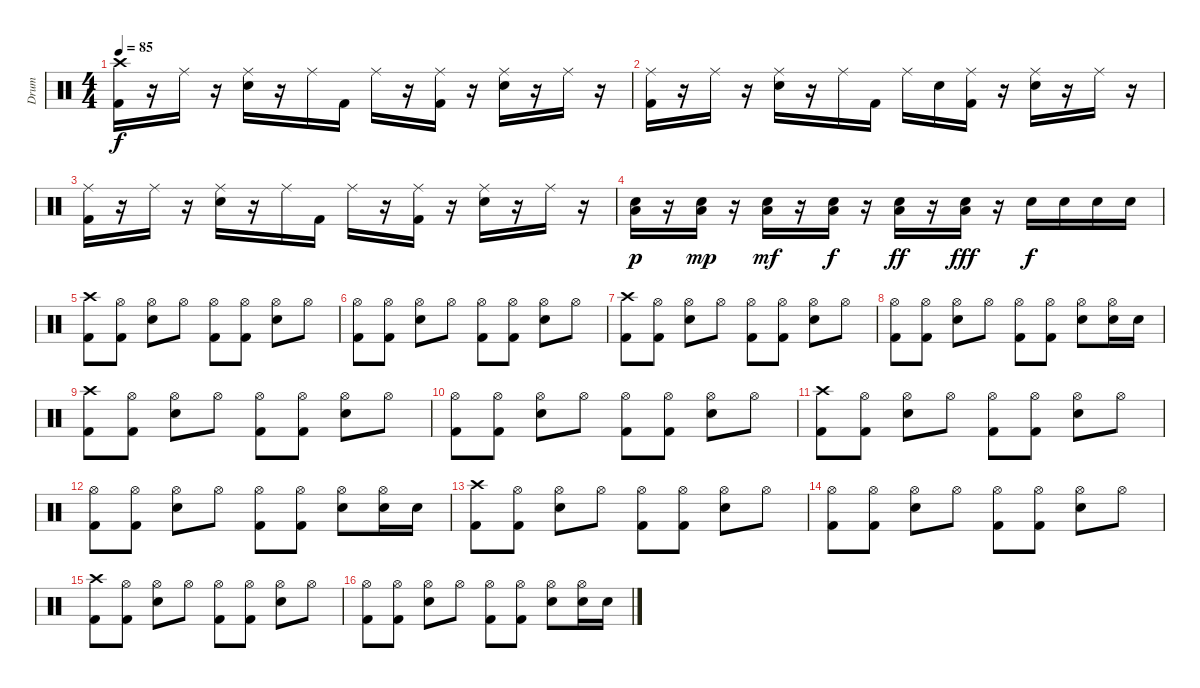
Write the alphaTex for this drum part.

\track ("Drum" "Drum") {instrument percussion}
\staff {score}
\articulation defaults
\ts (4 4)
\tempo 85
\clef neutral
\ks c
("Crash high (hit)" "Kick (hit) 2").16{dy f} r.16 "Ride (middle)".16 r.16 ("Ride (middle)" "Electric Snare (hit)").16 r.16 "Ride (middle)".16 "Kick (hit) 2".16 "Ride (middle)".16 r.16 ("Ride (middle)" "Kick (hit) 2").16 r.16 ("Ride (middle)" "Electric Snare (hit)").16 r.16 "Ride (middle)".16 r.16 |
("Ride (middle)" "Kick (hit) 2").16 r.16 "Ride (middle)".16 r.16 ("Ride (middle)" "Electric Snare (hit)").16 r.16 "Ride (middle)".16 "Kick (hit) 2".16 "Ride (middle)".16 "Electric Snare (hit)".16 ("Ride (middle)" "Kick (hit) 2").16 r.16 ("Ride (middle)" "Electric Snare (hit)").16 r.16 "Ride (middle)".16 r.16 |
("Ride (middle)" "Kick (hit) 2").16 r.16 "Ride (middle)".16 r.16 ("Ride (middle)" "Electric Snare (hit)").16 r.16 "Ride (middle)".16 "Kick (hit) 2".16 "Ride (middle)".16 r.16 ("Ride (middle)" "Kick (hit) 2").16 r.16 ("Ride (middle)" "Electric Snare (hit)").16 r.16 "Ride (middle)".16 r.16 |
("Low Floor Tom (hit)" "Electric Snare (hit)").16{dy p} r.16 ("Low Floor Tom (hit)" "Electric Snare (hit)").16{dy mp} r.16 ("Low Floor Tom (hit)" "Electric Snare (hit)").16{dy mf} r.16 ("Low Floor Tom (hit)" "Electric Snare (hit)").16{dy f} r.16 ("Low Floor Tom (hit)" "Electric Snare (hit)").16{dy ff} r.16 ("Low Floor Tom (hit)" "Electric Snare (hit)").16{dy fff} r.16 "Electric Snare (hit)".16{dy f} "Electric Snare (hit)".16 "Electric Snare (hit)".16 "Electric Snare (hit)".16 |
("Crash high (hit)" "Kick (hit) 2").8 ("Hi-Hat (open)" "Kick (hit) 2").8 ("Hi-Hat (open)" "Electric Snare (hit)").8 "Hi-Hat (open)".8 ("Hi-Hat (open)" "Kick (hit) 2").8 ("Hi-Hat (open)" "Kick (hit) 2").8 ("Hi-Hat (open)" "Electric Snare (hit)").8 "Hi-Hat (open)".8 |
("Hi-Hat (open)" "Kick (hit) 2").8 ("Hi-Hat (open)" "Kick (hit) 2").8 ("Hi-Hat (open)" "Electric Snare (hit)").8 "Hi-Hat (open)".8 ("Hi-Hat (open)" "Kick (hit) 2").8 ("Hi-Hat (open)" "Kick (hit) 2").8 ("Hi-Hat (open)" "Electric Snare (hit)").8 "Hi-Hat (open)".8 |
("Crash high (hit)" "Kick (hit) 2").8 ("Hi-Hat (open)" "Kick (hit) 2").8 ("Hi-Hat (open)" "Electric Snare (hit)").8 "Hi-Hat (open)".8 ("Hi-Hat (open)" "Kick (hit) 2").8 ("Hi-Hat (open)" "Kick (hit) 2").8 ("Hi-Hat (open)" "Electric Snare (hit)").8 "Hi-Hat (open)".8 |
("Hi-Hat (open)" "Kick (hit) 2").8 ("Hi-Hat (open)" "Kick (hit) 2").8 ("Hi-Hat (open)" "Electric Snare (hit)").8 "Hi-Hat (open)".8 ("Hi-Hat (open)" "Kick (hit) 2").8 ("Hi-Hat (open)" "Kick (hit) 2").8 ("Hi-Hat (open)" "Electric Snare (hit)").8 ("Hi-Hat (open)" "Electric Snare (hit)").16 "Electric Snare (hit)".16 |
("Crash high (hit)" "Kick (hit) 2").8 ("Hi-Hat (open)" "Kick (hit) 2").8 ("Hi-Hat (open)" "Electric Snare (hit)").8 "Hi-Hat (open)".8 ("Hi-Hat (open)" "Kick (hit) 2").8 ("Hi-Hat (open)" "Kick (hit) 2").8 ("Hi-Hat (open)" "Electric Snare (hit)").8 "Hi-Hat (open)".8 |
("Hi-Hat (open)" "Kick (hit) 2").8 ("Hi-Hat (open)" "Kick (hit) 2").8 ("Hi-Hat (open)" "Electric Snare (hit)").8 "Hi-Hat (open)".8 ("Hi-Hat (open)" "Kick (hit) 2").8 ("Hi-Hat (open)" "Kick (hit) 2").8 ("Hi-Hat (open)" "Electric Snare (hit)").8 "Hi-Hat (open)".8 |
("Crash high (hit)" "Kick (hit) 2").8 ("Hi-Hat (open)" "Kick (hit) 2").8 ("Hi-Hat (open)" "Electric Snare (hit)").8 "Hi-Hat (open)".8 ("Hi-Hat (open)" "Kick (hit) 2").8 ("Hi-Hat (open)" "Kick (hit) 2").8 ("Hi-Hat (open)" "Electric Snare (hit)").8 "Hi-Hat (open)".8 |
("Hi-Hat (open)" "Kick (hit) 2").8 ("Hi-Hat (open)" "Kick (hit) 2").8 ("Hi-Hat (open)" "Electric Snare (hit)").8 "Hi-Hat (open)".8 ("Hi-Hat (open)" "Kick (hit) 2").8 ("Hi-Hat (open)" "Kick (hit) 2").8 ("Hi-Hat (open)" "Electric Snare (hit)").8 ("Hi-Hat (open)" "Electric Snare (hit)").16 "Electric Snare (hit)".16 |
("Crash high (hit)" "Kick (hit) 2").8 ("Hi-Hat (open)" "Kick (hit) 2").8 ("Hi-Hat (open)" "Electric Snare (hit)").8 "Hi-Hat (open)".8 ("Hi-Hat (open)" "Kick (hit) 2").8 ("Hi-Hat (open)" "Kick (hit) 2").8 ("Hi-Hat (open)" "Electric Snare (hit)").8 "Hi-Hat (open)".8 |
("Hi-Hat (open)" "Kick (hit) 2").8 ("Hi-Hat (open)" "Kick (hit) 2").8 ("Hi-Hat (open)" "Electric Snare (hit)").8 "Hi-Hat (open)".8 ("Hi-Hat (open)" "Kick (hit) 2").8 ("Hi-Hat (open)" "Kick (hit) 2").8 ("Hi-Hat (open)" "Electric Snare (hit)").8 "Hi-Hat (open)".8 |
("Crash high (hit)" "Kick (hit) 2").8 ("Hi-Hat (open)" "Kick (hit) 2").8 ("Hi-Hat (open)" "Electric Snare (hit)").8 "Hi-Hat (open)".8 ("Hi-Hat (open)" "Kick (hit) 2").8 ("Hi-Hat (open)" "Kick (hit) 2").8 ("Hi-Hat (open)" "Electric Snare (hit)").8 "Hi-Hat (open)".8 |
("Hi-Hat (open)" "Kick (hit) 2").8 ("Hi-Hat (open)" "Kick (hit) 2").8 ("Hi-Hat (open)" "Electric Snare (hit)").8 "Hi-Hat (open)".8 ("Hi-Hat (open)" "Kick (hit) 2").8 ("Hi-Hat (open)" "Kick (hit) 2").8 ("Hi-Hat (open)" "Electric Snare (hit)").8 ("Hi-Hat (open)" "Electric Snare (hit)").16 "Electric Snare (hit)".16
